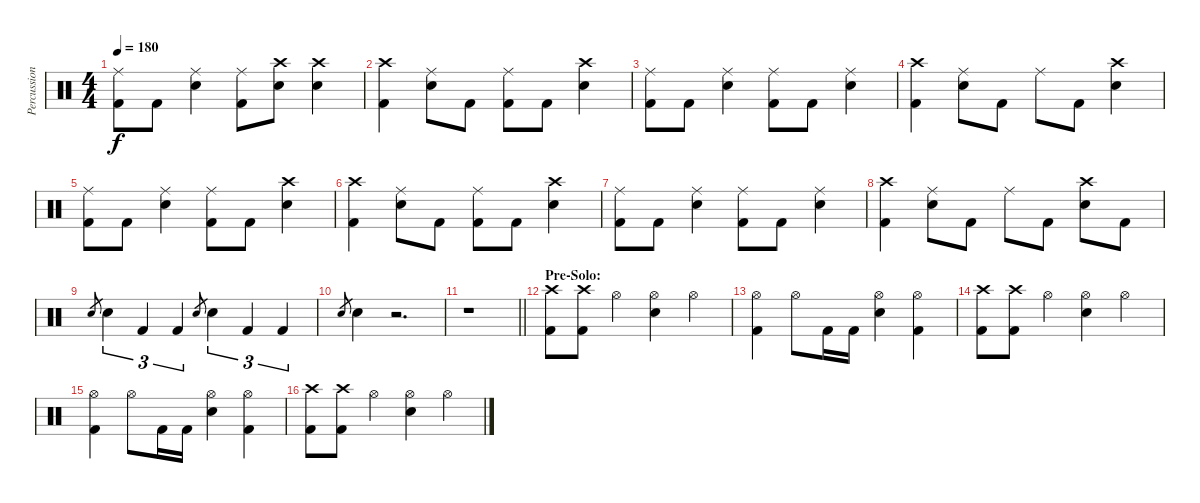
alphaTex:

\track ("Percussion" "Percussion") {instrument percussion}
\staff {score}
\articulation defaults
\ts (4 4)
\tempo 180
\clef neutral
\ks c
("Ride (middle)" "Kick (hit) 2").8{dy f} "Kick (hit) 2".8 ("Ride (middle)" "Snare (hit) 2").4 ("Ride (middle)" "Kick (hit) 2").8 ("Crash high (hit)" "Snare (hit) 2").8 ("Crash high (hit)" "Snare (hit) 2").4 |
("Crash high (hit)" "Kick (hit) 2").4 ("Ride (middle)" "Snare (hit) 2").8 "Kick (hit) 2".8 ("Ride (middle)" "Kick (hit) 2").8 "Kick (hit) 2".8 ("Crash high (hit)" "Snare (hit) 2").4 |
("Ride (middle)" "Kick (hit) 2").8 "Kick (hit) 2".8 ("Ride (middle)" "Snare (hit) 2").4 ("Ride (middle)" "Kick (hit) 2").8 "Kick (hit) 2".8 ("Ride (middle)" "Snare (hit) 2").4 |
("Crash high (hit)" "Kick (hit) 2").4 ("Ride (middle)" "Snare (hit) 2").8 "Kick (hit) 2".8 "Ride (middle)".8 "Kick (hit) 2".8 ("Crash high (hit)" "Snare (hit) 2").4 |
("Ride (middle)" "Kick (hit) 2").8 "Kick (hit) 2".8 ("Ride (middle)" "Snare (hit) 2").4 ("Ride (middle)" "Kick (hit) 2").8 "Kick (hit) 2".8 ("Crash high (hit)" "Snare (hit) 2").4 |
("Crash high (hit)" "Kick (hit) 2").4 ("Ride (middle)" "Snare (hit) 2").8 "Kick (hit) 2".8 ("Ride (middle)" "Kick (hit) 2").8 "Kick (hit) 2".8 ("Crash high (hit)" "Snare (hit) 2").4 |
("Ride (middle)" "Kick (hit) 2").8 "Kick (hit) 2".8 ("Ride (middle)" "Snare (hit) 2").4 ("Ride (middle)" "Kick (hit) 2").8 "Kick (hit) 2".8 ("Ride (middle)" "Snare (hit) 2").4 |
("Crash high (hit)" "Kick (hit) 2").4 ("Ride (middle)" "Snare (hit) 2").8 "Kick (hit) 2".8 "Ride (middle)".8 "Kick (hit) 2".8 ("Crash high (hit)" "Snare (hit) 2").8 "Kick (hit) 2".8 |
"Snare (hit) 2".8{gr} "Snare (hit) 2".4{tu (3 2)} "Kick (hit) 2".4{tu (3 2)} "Kick (hit) 2".4{tu (3 2)} "Snare (hit) 2".8{gr} "Snare (hit) 2".4{tu (3 2)} "Kick (hit) 2".4{tu (3 2)} "Kick (hit) 2".4{tu (3 2)} |
"Snare (hit) 2".8{gr} "Snare (hit) 2".4 r.2{d} |
\barLineRight lightlight
r.1 |
\section ("" "Pre-Solo:")
("Crash high (hit)" "Kick (hit) 2").8 ("Crash high (hit)" "Kick (hit) 2").8 "Hi-Hat (open)".4 ("Hi-Hat (open)" "Snare (hit) 2").4 "Hi-Hat (open)".4 |
("Hi-Hat (open)" "Kick (hit) 2").4 "Hi-Hat (open)".8 "Kick (hit) 2".16 "Kick (hit) 2".16 ("Hi-Hat (open)" "Snare (hit) 2").4 ("Hi-Hat (open)" "Kick (hit) 2").4 |
("Crash high (hit)" "Kick (hit) 2").8 ("Crash high (hit)" "Kick (hit) 2").8 "Hi-Hat (open)".4 ("Hi-Hat (open)" "Snare (hit) 2").4 "Hi-Hat (open)".4 |
("Hi-Hat (open)" "Kick (hit) 2").4 "Hi-Hat (open)".8 "Kick (hit) 2".16 "Kick (hit) 2".16 ("Hi-Hat (open)" "Snare (hit) 2").4 ("Hi-Hat (open)" "Kick (hit) 2").4 |
("Crash high (hit)" "Kick (hit) 2").8 ("Crash high (hit)" "Kick (hit) 2").8 "Hi-Hat (open)".4 ("Hi-Hat (open)" "Snare (hit) 2").4 "Hi-Hat (open)".4
